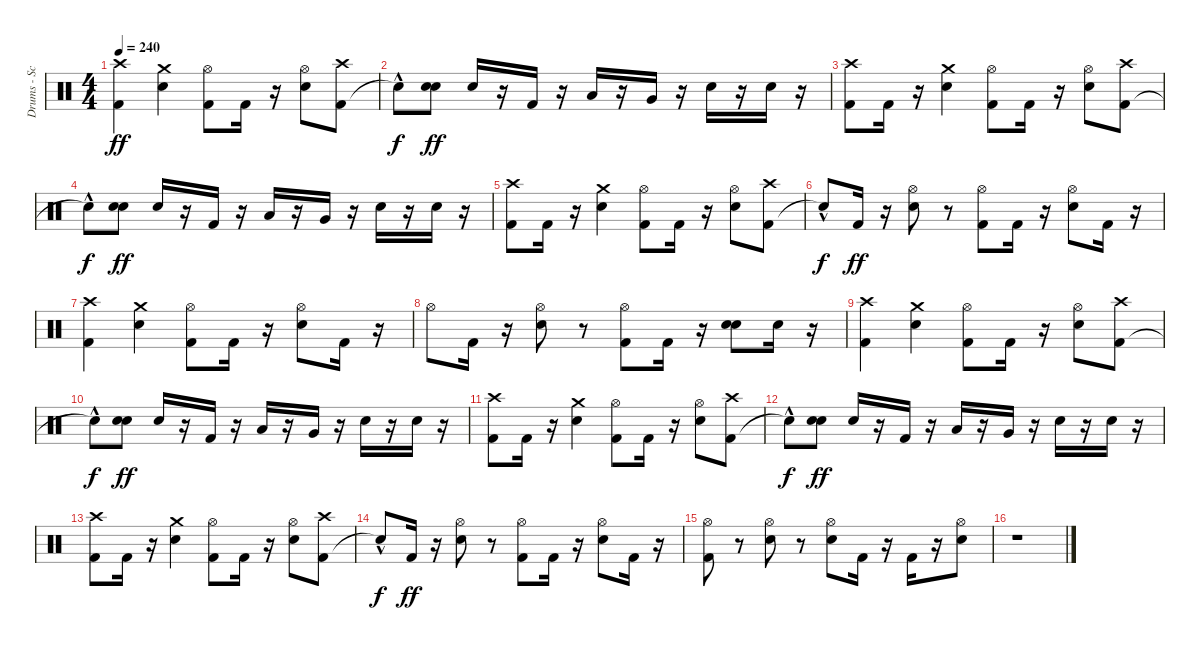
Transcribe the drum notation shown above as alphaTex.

\track ("Drums - Scott" "Drums - Sc") {instrument percussion}
\staff {score}
\articulation defaults
\ts (4 4)
\tempo 240
\clef neutral
\ks c
("Kick (hit) 2" "Crash high (hit)").4{dy ff} ("Electric Snare (hit)" "Crash medium (hit)").4 ("Kick (hit) 2" "Hi-Hat (open)").8 "Kick (hit) 2".16 r.16 ("Electric Snare (hit)" "Hi-Hat (open)").8 ("Kick (hit) 2" "Crash high (hit)").8 |
"Snare (hit)"{hac t}.8{dy f} ("Electric Snare (hit)" "Electric Snare (hit)").8{dy ff} "Electric Snare (hit)".16 r.16 "Kick (hit) 2".16 r.16 "Low Tom (hit)".16 r.16 "Very Low Tom (hit)".16 r.16 "Electric Snare (hit)".16 r.16 "Electric Snare (hit)".16 r.16 |
("Kick (hit) 2" "Crash high (hit)").8 "Kick (hit) 2".16 r.16 ("Electric Snare (hit)" "Crash medium (hit)").4 ("Kick (hit) 2" "Hi-Hat (open)").8 "Kick (hit) 2".16 r.16 ("Electric Snare (hit)" "Hi-Hat (open)").8 ("Kick (hit) 2" "Crash high (hit)").8 |
"Snare (hit)"{hac t}.8{dy f} ("Electric Snare (hit)" "Electric Snare (hit)").8{dy ff} "Electric Snare (hit)".16 r.16 "Kick (hit) 2".16 r.16 "Low Tom (hit)".16 r.16 "Very Low Tom (hit)".16 r.16 "Electric Snare (hit)".16 r.16 "Electric Snare (hit)".16 r.16 |
("Kick (hit) 2" "Crash high (hit)").8 "Kick (hit) 2".16 r.16 ("Electric Snare (hit)" "Crash medium (hit)").4 ("Kick (hit) 2" "Hi-Hat (open)").8 "Kick (hit) 2".16 r.16 ("Electric Snare (hit)" "Hi-Hat (open)").8 ("Kick (hit) 2" "Crash high (hit)").8 |
"Snare (hit)"{hac t}.8{dy f} "Kick (hit) 2".16{dy ff} r.16 ("Electric Snare (hit)" "Hi-Hat (open)").8 r.8 ("Kick (hit) 2" "Hi-Hat (open)").8 "Kick (hit) 2".16 r.16 ("Electric Snare (hit)" "Hi-Hat (open)").8 "Kick (hit) 2".16 r.16 |
("Kick (hit) 2" "Crash high (hit)").4 ("Electric Snare (hit)" "Crash medium (hit)").4 ("Kick (hit) 2" "Hi-Hat (open)").8 "Kick (hit) 2".16 r.16 ("Electric Snare (hit)" "Hi-Hat (open)").8 "Kick (hit) 2".16 r.16 |
"Hi-Hat (open)".8 "Kick (hit) 2".16 r.16 ("Electric Snare (hit)" "Hi-Hat (open)").8 r.8 ("Kick (hit) 2" "Hi-Hat (open)").8 "Kick (hit) 2".16 r.16 ("Electric Snare (hit)" "Electric Snare (hit)").8 "Electric Snare (hit)".16 r.16 |
("Kick (hit) 2" "Crash high (hit)").4 ("Electric Snare (hit)" "Crash medium (hit)").4 ("Kick (hit) 2" "Hi-Hat (open)").8 "Kick (hit) 2".16 r.16 ("Electric Snare (hit)" "Hi-Hat (open)").8 ("Kick (hit) 2" "Crash high (hit)").8 |
"Snare (hit)"{hac t}.8{dy f} ("Electric Snare (hit)" "Electric Snare (hit)").8{dy ff} "Electric Snare (hit)".16 r.16 "Kick (hit) 2".16 r.16 "Low Tom (hit)".16 r.16 "Very Low Tom (hit)".16 r.16 "Electric Snare (hit)".16 r.16 "Electric Snare (hit)".16 r.16 |
("Kick (hit) 2" "Crash high (hit)").8 "Kick (hit) 2".16 r.16 ("Electric Snare (hit)" "Crash medium (hit)").4 ("Kick (hit) 2" "Hi-Hat (open)").8 "Kick (hit) 2".16 r.16 ("Electric Snare (hit)" "Hi-Hat (open)").8 ("Kick (hit) 2" "Crash high (hit)").8 |
"Snare (hit)"{hac t}.8{dy f} ("Electric Snare (hit)" "Electric Snare (hit)").8{dy ff} "Electric Snare (hit)".16 r.16 "Kick (hit) 2".16 r.16 "Low Tom (hit)".16 r.16 "Very Low Tom (hit)".16 r.16 "Electric Snare (hit)".16 r.16 "Electric Snare (hit)".16 r.16 |
("Kick (hit) 2" "Crash high (hit)").8 "Kick (hit) 2".16 r.16 ("Electric Snare (hit)" "Crash medium (hit)").4 ("Kick (hit) 2" "Hi-Hat (open)").8 "Kick (hit) 2".16 r.16 ("Electric Snare (hit)" "Hi-Hat (open)").8 ("Kick (hit) 2" "Crash high (hit)").8 |
"Snare (hit)"{hac t}.8{dy f} "Kick (hit) 2".16{dy ff} r.16 ("Electric Snare (hit)" "Hi-Hat (open)").8 r.8 ("Kick (hit) 2" "Hi-Hat (open)").8 "Kick (hit) 2".16 r.16 ("Electric Snare (hit)" "Hi-Hat (open)").8 "Kick (hit) 2".16 r.16 |
("Kick (hit) 2" "Hi-Hat (open)").8 r.8 ("Electric Snare (hit)" "Hi-Hat (open)").8 r.8 ("Electric Snare (hit)" "Hi-Hat (open)").8 "Kick (hit) 2".16 r.16 "Kick (hit) 2".16 r.16 ("Electric Snare (hit)" "Hi-Hat (open)").8 |
r.1
